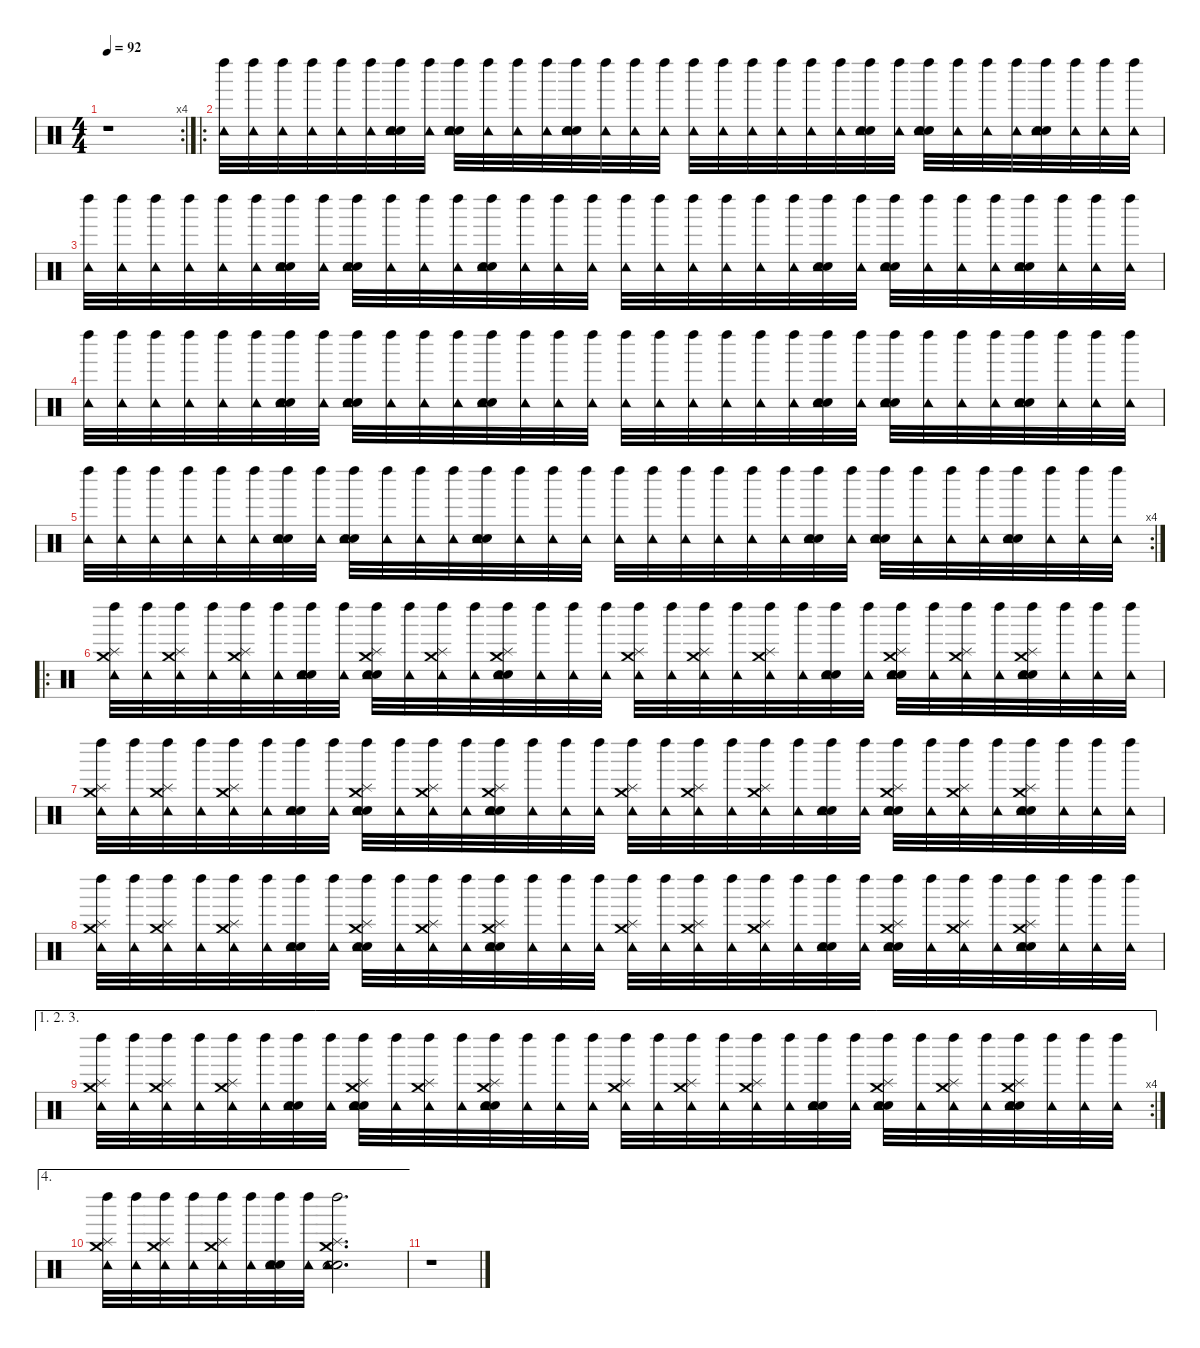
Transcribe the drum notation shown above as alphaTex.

\defaultSystemsLayout 4
\hideDynamics
\bracketExtendMode nobrackets
\singleTrackTrackNamePolicy hidden
\multiTrackTrackNamePolicy hidden
\firstSystemTrackNameMode fullname
\firstSystemTrackNameOrientation horizontal
\otherSystemsTrackNameOrientation horizontal
\track ("Percussions" "drm.") {defaultSystemsLayout 4 instrument percussion}
\staff {score}
\articulation defaults
\rc 4
\ts (4 4)
\tempo 92
\clef neutral
\ks c
r.1{dy mp beam Down} |
\ro
("Tambourine (hit)" "Left Maraca (hit)").32{beam Down} ("Tambourine (hit)" "Left Maraca (hit)").32{beam Down} ("Tambourine (hit)" "Left Maraca (hit)").32{beam Down} ("Tambourine (hit)" "Left Maraca (hit)").32{beam Down} ("Tambourine (hit)" "Left Maraca (hit)").32{beam Down} ("Tambourine (hit)" "Left Maraca (hit)").32{beam Down} ("Snare (hit) 2" "Snare (hit) 2" "Tambourine (hit)" "Left Maraca (hit)").32{dy fff beam Down} ("Tambourine (hit)" "Left Maraca (hit)").32{dy mp beam Down} ("Snare (hit) 2" "Snare (hit) 2" "Tambourine (hit)" "Left Maraca (hit)").32{dy fff beam Down} ("Tambourine (hit)" "Left Maraca (hit)").32{dy mp beam Down} ("Tambourine (hit)" "Left Maraca (hit)").32{beam Down} ("Tambourine (hit)" "Left Maraca (hit)").32{beam Down} ("Snare (hit) 2" "Snare (hit) 2" "Tambourine (hit)" "Left Maraca (hit)").32{dy fff beam Down} ("Tambourine (hit)" "Left Maraca (hit)").32{dy mp beam Down} ("Tambourine (hit)" "Left Maraca (hit)").32{beam Down} ("Tambourine (hit)" "Left Maraca (hit)").32{beam Down} ("Tambourine (hit)" "Left Maraca (hit)").32{beam Down} ("Tambourine (hit)" "Left Maraca (hit)").32{beam Down} ("Tambourine (hit)" "Left Maraca (hit)").32{beam Down} ("Tambourine (hit)" "Left Maraca (hit)").32{beam Down} ("Tambourine (hit)" "Left Maraca (hit)").32{beam Down} ("Tambourine (hit)" "Left Maraca (hit)").32{beam Down} ("Snare (hit) 2" "Snare (hit) 2" "Tambourine (hit)" "Left Maraca (hit)").32{dy fff beam Down} ("Tambourine (hit)" "Left Maraca (hit)").32{dy mp beam Down} ("Snare (hit) 2" "Snare (hit) 2" "Tambourine (hit)" "Left Maraca (hit)").32{dy fff beam Down} ("Tambourine (hit)" "Left Maraca (hit)").32{dy mp beam Down} ("Tambourine (hit)" "Left Maraca (hit)").32{beam Down} ("Tambourine (hit)" "Left Maraca (hit)").32{beam Down} ("Snare (hit) 2" "Snare (hit) 2" "Tambourine (hit)" "Left Maraca (hit)").32{dy fff beam Down} ("Tambourine (hit)" "Left Maraca (hit)").32{dy mp beam Down} ("Tambourine (hit)" "Left Maraca (hit)").32{beam Down} ("Tambourine (hit)" "Left Maraca (hit)").32{beam Down} |
("Tambourine (hit)" "Left Maraca (hit)").32{beam Down} ("Tambourine (hit)" "Left Maraca (hit)").32{beam Down} ("Tambourine (hit)" "Left Maraca (hit)").32{beam Down} ("Tambourine (hit)" "Left Maraca (hit)").32{beam Down} ("Tambourine (hit)" "Left Maraca (hit)").32{beam Down} ("Tambourine (hit)" "Left Maraca (hit)").32{beam Down} ("Snare (hit) 2" "Snare (hit) 2" "Tambourine (hit)" "Left Maraca (hit)").32{dy fff beam Down} ("Tambourine (hit)" "Left Maraca (hit)").32{dy mp beam Down} ("Snare (hit) 2" "Snare (hit) 2" "Tambourine (hit)" "Left Maraca (hit)").32{dy fff beam Down} ("Tambourine (hit)" "Left Maraca (hit)").32{dy mp beam Down} ("Tambourine (hit)" "Left Maraca (hit)").32{beam Down} ("Tambourine (hit)" "Left Maraca (hit)").32{beam Down} ("Snare (hit) 2" "Snare (hit) 2" "Tambourine (hit)" "Left Maraca (hit)").32{dy fff beam Down} ("Tambourine (hit)" "Left Maraca (hit)").32{dy mp beam Down} ("Tambourine (hit)" "Left Maraca (hit)").32{beam Down} ("Tambourine (hit)" "Left Maraca (hit)").32{beam Down} ("Tambourine (hit)" "Left Maraca (hit)").32{beam Down} ("Tambourine (hit)" "Left Maraca (hit)").32{beam Down} ("Tambourine (hit)" "Left Maraca (hit)").32{beam Down} ("Tambourine (hit)" "Left Maraca (hit)").32{beam Down} ("Tambourine (hit)" "Left Maraca (hit)").32{beam Down} ("Tambourine (hit)" "Left Maraca (hit)").32{beam Down} ("Snare (hit) 2" "Snare (hit) 2" "Tambourine (hit)" "Left Maraca (hit)").32{dy fff beam Down} ("Tambourine (hit)" "Left Maraca (hit)").32{dy mp beam Down} ("Snare (hit) 2" "Snare (hit) 2" "Tambourine (hit)" "Left Maraca (hit)").32{dy fff beam Down} ("Tambourine (hit)" "Left Maraca (hit)").32{dy mp beam Down} ("Tambourine (hit)" "Left Maraca (hit)").32{beam Down} ("Tambourine (hit)" "Left Maraca (hit)").32{beam Down} ("Snare (hit) 2" "Snare (hit) 2" "Tambourine (hit)" "Left Maraca (hit)").32{dy fff beam Down} ("Tambourine (hit)" "Left Maraca (hit)").32{dy mp beam Down} ("Tambourine (hit)" "Left Maraca (hit)").32{beam Down} ("Tambourine (hit)" "Left Maraca (hit)").32{beam Down} |
("Tambourine (hit)" "Left Maraca (hit)").32{beam Down} ("Tambourine (hit)" "Left Maraca (hit)").32{beam Down} ("Tambourine (hit)" "Left Maraca (hit)").32{beam Down} ("Tambourine (hit)" "Left Maraca (hit)").32{beam Down} ("Tambourine (hit)" "Left Maraca (hit)").32{beam Down} ("Tambourine (hit)" "Left Maraca (hit)").32{beam Down} ("Snare (hit) 2" "Snare (hit) 2" "Tambourine (hit)" "Left Maraca (hit)").32{dy fff beam Down} ("Tambourine (hit)" "Left Maraca (hit)").32{dy mp beam Down} ("Snare (hit) 2" "Snare (hit) 2" "Tambourine (hit)" "Left Maraca (hit)").32{dy fff beam Down} ("Tambourine (hit)" "Left Maraca (hit)").32{dy mp beam Down} ("Tambourine (hit)" "Left Maraca (hit)").32{beam Down} ("Tambourine (hit)" "Left Maraca (hit)").32{beam Down} ("Snare (hit) 2" "Snare (hit) 2" "Tambourine (hit)" "Left Maraca (hit)").32{dy fff beam Down} ("Tambourine (hit)" "Left Maraca (hit)").32{dy mp beam Down} ("Tambourine (hit)" "Left Maraca (hit)").32{beam Down} ("Tambourine (hit)" "Left Maraca (hit)").32{beam Down} ("Tambourine (hit)" "Left Maraca (hit)").32{beam Down} ("Tambourine (hit)" "Left Maraca (hit)").32{beam Down} ("Tambourine (hit)" "Left Maraca (hit)").32{beam Down} ("Tambourine (hit)" "Left Maraca (hit)").32{beam Down} ("Tambourine (hit)" "Left Maraca (hit)").32{beam Down} ("Tambourine (hit)" "Left Maraca (hit)").32{beam Down} ("Snare (hit) 2" "Snare (hit) 2" "Tambourine (hit)" "Left Maraca (hit)").32{dy fff beam Down} ("Tambourine (hit)" "Left Maraca (hit)").32{dy mp beam Down} ("Snare (hit) 2" "Snare (hit) 2" "Tambourine (hit)" "Left Maraca (hit)").32{dy fff beam Down} ("Tambourine (hit)" "Left Maraca (hit)").32{dy mp beam Down} ("Tambourine (hit)" "Left Maraca (hit)").32{beam Down} ("Tambourine (hit)" "Left Maraca (hit)").32{beam Down} ("Snare (hit) 2" "Snare (hit) 2" "Tambourine (hit)" "Left Maraca (hit)").32{dy fff beam Down} ("Tambourine (hit)" "Left Maraca (hit)").32{dy mp beam Down} ("Tambourine (hit)" "Left Maraca (hit)").32{beam Down} ("Tambourine (hit)" "Left Maraca (hit)").32{beam Down} |
\rc 4
("Tambourine (hit)" "Left Maraca (hit)").32{beam Down} ("Tambourine (hit)" "Left Maraca (hit)").32{beam Down} ("Tambourine (hit)" "Left Maraca (hit)").32{beam Down} ("Tambourine (hit)" "Left Maraca (hit)").32{beam Down} ("Tambourine (hit)" "Left Maraca (hit)").32{beam Down} ("Tambourine (hit)" "Left Maraca (hit)").32{beam Down} ("Snare (hit) 2" "Snare (hit) 2" "Tambourine (hit)" "Left Maraca (hit)").32{dy fff beam Down} ("Tambourine (hit)" "Left Maraca (hit)").32{dy mp beam Down} ("Snare (hit) 2" "Snare (hit) 2" "Tambourine (hit)" "Left Maraca (hit)").32{dy fff beam Down} ("Tambourine (hit)" "Left Maraca (hit)").32{dy mp beam Down} ("Tambourine (hit)" "Left Maraca (hit)").32{beam Down} ("Tambourine (hit)" "Left Maraca (hit)").32{beam Down} ("Snare (hit) 2" "Snare (hit) 2" "Tambourine (hit)" "Left Maraca (hit)").32{dy fff beam Down} ("Tambourine (hit)" "Left Maraca (hit)").32{dy mp beam Down} ("Tambourine (hit)" "Left Maraca (hit)").32{beam Down} ("Tambourine (hit)" "Left Maraca (hit)").32{beam Down} ("Tambourine (hit)" "Left Maraca (hit)").32{beam Down} ("Tambourine (hit)" "Left Maraca (hit)").32{beam Down} ("Tambourine (hit)" "Left Maraca (hit)").32{beam Down} ("Tambourine (hit)" "Left Maraca (hit)").32{beam Down} ("Tambourine (hit)" "Left Maraca (hit)").32{beam Down} ("Tambourine (hit)" "Left Maraca (hit)").32{beam Down} ("Snare (hit) 2" "Snare (hit) 2" "Tambourine (hit)" "Left Maraca (hit)").32{dy fff beam Down} ("Tambourine (hit)" "Left Maraca (hit)").32{dy mp beam Down} ("Snare (hit) 2" "Snare (hit) 2" "Tambourine (hit)" "Left Maraca (hit)").32{dy fff beam Down} ("Tambourine (hit)" "Left Maraca (hit)").32{dy mp beam Down} ("Tambourine (hit)" "Left Maraca (hit)").32{beam Down} ("Tambourine (hit)" "Left Maraca (hit)").32{beam Down} ("Snare (hit) 2" "Snare (hit) 2" "Tambourine (hit)" "Left Maraca (hit)").32{dy fff beam Down} ("Tambourine (hit)" "Left Maraca (hit)").32{dy mp beam Down} ("Tambourine (hit)" "Left Maraca (hit)").32{beam Down} ("Tambourine (hit)" "Left Maraca (hit)").32{beam Down} |
\ro
("Splash (hit)" "Crash medium (hit)" "Tambourine (hit)" "Left Maraca (hit)").32{dy fff beam Down} ("Tambourine (hit)" "Left Maraca (hit)").32{beam Down} ("Splash (hit)" "Crash medium (hit)" "Tambourine (hit)" "Left Maraca (hit)").32{beam Down} ("Tambourine (hit)" "Left Maraca (hit)").32{beam Down} ("Splash (hit)" "Crash medium (hit)" "Tambourine (hit)" "Left Maraca (hit)").32{beam Down} ("Tambourine (hit)" "Left Maraca (hit)").32{beam Down} ("Snare (hit) 2" "Snare (hit) 2" "Tambourine (hit)" "Left Maraca (hit)").32{beam Down} ("Tambourine (hit)" "Left Maraca (hit)").32{beam Down} ("Snare (hit) 2" "Snare (hit) 2" "Splash (hit)" "Crash medium (hit)" "Tambourine (hit)" "Left Maraca (hit)").32{beam Down} ("Tambourine (hit)" "Left Maraca (hit)").32{beam Down} ("Splash (hit)" "Crash medium (hit)" "Tambourine (hit)" "Left Maraca (hit)").32{beam Down} ("Tambourine (hit)" "Left Maraca (hit)").32{beam Down} ("Snare (hit) 2" "Snare (hit) 2" "Splash (hit)" "Crash medium (hit)" "Tambourine (hit)" "Left Maraca (hit)").32{beam Down} ("Tambourine (hit)" "Left Maraca (hit)").32{beam Down} ("Tambourine (hit)" "Left Maraca (hit)").32{beam Down} ("Tambourine (hit)" "Left Maraca (hit)").32{beam Down} ("Splash (hit)" "Crash medium (hit)" "Tambourine (hit)" "Left Maraca (hit)").32{beam Down} ("Tambourine (hit)" "Left Maraca (hit)").32{beam Down} ("Splash (hit)" "Crash medium (hit)" "Tambourine (hit)" "Left Maraca (hit)").32{beam Down} ("Tambourine (hit)" "Left Maraca (hit)").32{beam Down} ("Splash (hit)" "Crash medium (hit)" "Tambourine (hit)" "Left Maraca (hit)").32{beam Down} ("Tambourine (hit)" "Left Maraca (hit)").32{beam Down} ("Snare (hit) 2" "Snare (hit) 2" "Tambourine (hit)" "Left Maraca (hit)").32{beam Down} ("Tambourine (hit)" "Left Maraca (hit)").32{beam Down} ("Snare (hit) 2" "Snare (hit) 2" "Splash (hit)" "Crash medium (hit)" "Tambourine (hit)" "Left Maraca (hit)").32{beam Down} ("Tambourine (hit)" "Left Maraca (hit)").32{beam Down} ("Splash (hit)" "Crash medium (hit)" "Tambourine (hit)" "Left Maraca (hit)").32{beam Down} ("Tambourine (hit)" "Left Maraca (hit)").32{beam Down} ("Snare (hit) 2" "Snare (hit) 2" "Splash (hit)" "Crash medium (hit)" "Tambourine (hit)" "Left Maraca (hit)").32{beam Down} ("Tambourine (hit)" "Left Maraca (hit)").32{beam Down} ("Tambourine (hit)" "Left Maraca (hit)").32{beam Down} ("Tambourine (hit)" "Left Maraca (hit)").32{beam Down} |
("Splash (hit)" "Crash medium (hit)" "Tambourine (hit)" "Left Maraca (hit)").32{beam Down} ("Tambourine (hit)" "Left Maraca (hit)").32{beam Down} ("Splash (hit)" "Crash medium (hit)" "Tambourine (hit)" "Left Maraca (hit)").32{beam Down} ("Tambourine (hit)" "Left Maraca (hit)").32{beam Down} ("Splash (hit)" "Crash medium (hit)" "Tambourine (hit)" "Left Maraca (hit)").32{beam Down} ("Tambourine (hit)" "Left Maraca (hit)").32{beam Down} ("Snare (hit) 2" "Snare (hit) 2" "Tambourine (hit)" "Left Maraca (hit)").32{beam Down} ("Tambourine (hit)" "Left Maraca (hit)").32{beam Down} ("Snare (hit) 2" "Snare (hit) 2" "Splash (hit)" "Crash medium (hit)" "Tambourine (hit)" "Left Maraca (hit)").32{beam Down} ("Tambourine (hit)" "Left Maraca (hit)").32{beam Down} ("Splash (hit)" "Crash medium (hit)" "Tambourine (hit)" "Left Maraca (hit)").32{beam Down} ("Tambourine (hit)" "Left Maraca (hit)").32{beam Down} ("Snare (hit) 2" "Snare (hit) 2" "Splash (hit)" "Crash medium (hit)" "Tambourine (hit)" "Left Maraca (hit)").32{beam Down} ("Tambourine (hit)" "Left Maraca (hit)").32{beam Down} ("Tambourine (hit)" "Left Maraca (hit)").32{beam Down} ("Tambourine (hit)" "Left Maraca (hit)").32{beam Down} ("Splash (hit)" "Crash medium (hit)" "Tambourine (hit)" "Left Maraca (hit)").32{beam Down} ("Tambourine (hit)" "Left Maraca (hit)").32{beam Down} ("Splash (hit)" "Crash medium (hit)" "Tambourine (hit)" "Left Maraca (hit)").32{beam Down} ("Tambourine (hit)" "Left Maraca (hit)").32{beam Down} ("Splash (hit)" "Crash medium (hit)" "Tambourine (hit)" "Left Maraca (hit)").32{beam Down} ("Tambourine (hit)" "Left Maraca (hit)").32{beam Down} ("Snare (hit) 2" "Snare (hit) 2" "Tambourine (hit)" "Left Maraca (hit)").32{beam Down} ("Tambourine (hit)" "Left Maraca (hit)").32{beam Down} ("Snare (hit) 2" "Snare (hit) 2" "Splash (hit)" "Crash medium (hit)" "Tambourine (hit)" "Left Maraca (hit)").32{beam Down} ("Tambourine (hit)" "Left Maraca (hit)").32{beam Down} ("Splash (hit)" "Crash medium (hit)" "Tambourine (hit)" "Left Maraca (hit)").32{beam Down} ("Tambourine (hit)" "Left Maraca (hit)").32{beam Down} ("Snare (hit) 2" "Snare (hit) 2" "Splash (hit)" "Crash medium (hit)" "Tambourine (hit)" "Left Maraca (hit)").32{beam Down} ("Tambourine (hit)" "Left Maraca (hit)").32{beam Down} ("Tambourine (hit)" "Left Maraca (hit)").32{beam Down} ("Tambourine (hit)" "Left Maraca (hit)").32{beam Down} |
("Splash (hit)" "Crash medium (hit)" "Tambourine (hit)" "Left Maraca (hit)").32{beam Down} ("Tambourine (hit)" "Left Maraca (hit)").32{beam Down} ("Splash (hit)" "Crash medium (hit)" "Tambourine (hit)" "Left Maraca (hit)").32{beam Down} ("Tambourine (hit)" "Left Maraca (hit)").32{beam Down} ("Splash (hit)" "Crash medium (hit)" "Tambourine (hit)" "Left Maraca (hit)").32{beam Down} ("Tambourine (hit)" "Left Maraca (hit)").32{beam Down} ("Snare (hit) 2" "Snare (hit) 2" "Tambourine (hit)" "Left Maraca (hit)").32{beam Down} ("Tambourine (hit)" "Left Maraca (hit)").32{beam Down} ("Snare (hit) 2" "Snare (hit) 2" "Splash (hit)" "Crash medium (hit)" "Tambourine (hit)" "Left Maraca (hit)").32{beam Down} ("Tambourine (hit)" "Left Maraca (hit)").32{beam Down} ("Splash (hit)" "Crash medium (hit)" "Tambourine (hit)" "Left Maraca (hit)").32{beam Down} ("Tambourine (hit)" "Left Maraca (hit)").32{beam Down} ("Snare (hit) 2" "Snare (hit) 2" "Splash (hit)" "Crash medium (hit)" "Tambourine (hit)" "Left Maraca (hit)").32{beam Down} ("Tambourine (hit)" "Left Maraca (hit)").32{beam Down} ("Tambourine (hit)" "Left Maraca (hit)").32{beam Down} ("Tambourine (hit)" "Left Maraca (hit)").32{beam Down} ("Splash (hit)" "Crash medium (hit)" "Tambourine (hit)" "Left Maraca (hit)").32{beam Down} ("Tambourine (hit)" "Left Maraca (hit)").32{beam Down} ("Splash (hit)" "Crash medium (hit)" "Tambourine (hit)" "Left Maraca (hit)").32{beam Down} ("Tambourine (hit)" "Left Maraca (hit)").32{beam Down} ("Splash (hit)" "Crash medium (hit)" "Tambourine (hit)" "Left Maraca (hit)").32{beam Down} ("Tambourine (hit)" "Left Maraca (hit)").32{beam Down} ("Snare (hit) 2" "Snare (hit) 2" "Tambourine (hit)" "Left Maraca (hit)").32{beam Down} ("Tambourine (hit)" "Left Maraca (hit)").32{beam Down} ("Snare (hit) 2" "Snare (hit) 2" "Splash (hit)" "Crash medium (hit)" "Tambourine (hit)" "Left Maraca (hit)").32{beam Down} ("Tambourine (hit)" "Left Maraca (hit)").32{beam Down} ("Splash (hit)" "Crash medium (hit)" "Tambourine (hit)" "Left Maraca (hit)").32{beam Down} ("Tambourine (hit)" "Left Maraca (hit)").32{beam Down} ("Snare (hit) 2" "Snare (hit) 2" "Splash (hit)" "Crash medium (hit)" "Tambourine (hit)" "Left Maraca (hit)").32{beam Down} ("Tambourine (hit)" "Left Maraca (hit)").32{beam Down} ("Tambourine (hit)" "Left Maraca (hit)").32{beam Down} ("Tambourine (hit)" "Left Maraca (hit)").32{beam Down} |
\ae (1 2 3)
\rc 4
("Splash (hit)" "Crash medium (hit)" "Tambourine (hit)" "Left Maraca (hit)").32{beam Down} ("Tambourine (hit)" "Left Maraca (hit)").32{beam Down} ("Splash (hit)" "Crash medium (hit)" "Tambourine (hit)" "Left Maraca (hit)").32{beam Down} ("Tambourine (hit)" "Left Maraca (hit)").32{beam Down} ("Splash (hit)" "Crash medium (hit)" "Tambourine (hit)" "Left Maraca (hit)").32{beam Down} ("Tambourine (hit)" "Left Maraca (hit)").32{beam Down} ("Snare (hit) 2" "Snare (hit) 2" "Tambourine (hit)" "Left Maraca (hit)").32{beam Down} ("Tambourine (hit)" "Left Maraca (hit)").32{beam Down} ("Snare (hit) 2" "Snare (hit) 2" "Splash (hit)" "Crash medium (hit)" "Tambourine (hit)" "Left Maraca (hit)").32{beam Down} ("Tambourine (hit)" "Left Maraca (hit)").32{beam Down} ("Splash (hit)" "Crash medium (hit)" "Tambourine (hit)" "Left Maraca (hit)").32{beam Down} ("Tambourine (hit)" "Left Maraca (hit)").32{beam Down} ("Snare (hit) 2" "Snare (hit) 2" "Splash (hit)" "Crash medium (hit)" "Tambourine (hit)" "Left Maraca (hit)").32{beam Down} ("Tambourine (hit)" "Left Maraca (hit)").32{beam Down} ("Tambourine (hit)" "Left Maraca (hit)").32{beam Down} ("Tambourine (hit)" "Left Maraca (hit)").32{beam Down} ("Splash (hit)" "Crash medium (hit)" "Tambourine (hit)" "Left Maraca (hit)").32{beam Down} ("Tambourine (hit)" "Left Maraca (hit)").32{beam Down} ("Splash (hit)" "Crash medium (hit)" "Tambourine (hit)" "Left Maraca (hit)").32{beam Down} ("Tambourine (hit)" "Left Maraca (hit)").32{beam Down} ("Splash (hit)" "Crash medium (hit)" "Tambourine (hit)" "Left Maraca (hit)").32{beam Down} ("Tambourine (hit)" "Left Maraca (hit)").32{beam Down} ("Snare (hit) 2" "Snare (hit) 2" "Tambourine (hit)" "Left Maraca (hit)").32{beam Down} ("Tambourine (hit)" "Left Maraca (hit)").32{beam Down} ("Snare (hit) 2" "Snare (hit) 2" "Splash (hit)" "Crash medium (hit)" "Tambourine (hit)" "Left Maraca (hit)").32{beam Down} ("Tambourine (hit)" "Left Maraca (hit)").32{beam Down} ("Splash (hit)" "Crash medium (hit)" "Tambourine (hit)" "Left Maraca (hit)").32{beam Down} ("Tambourine (hit)" "Left Maraca (hit)").32{beam Down} ("Snare (hit) 2" "Snare (hit) 2" "Splash (hit)" "Crash medium (hit)" "Tambourine (hit)" "Left Maraca (hit)").32{beam Down} ("Tambourine (hit)" "Left Maraca (hit)").32{beam Down} ("Tambourine (hit)" "Left Maraca (hit)").32{beam Down} ("Tambourine (hit)" "Left Maraca (hit)").32{beam Down} |
\ae 4
("Splash (hit)" "Crash medium (hit)" "Tambourine (hit)" "Left Maraca (hit)").32{beam Down} ("Tambourine (hit)" "Left Maraca (hit)").32{beam Down} ("Splash (hit)" "Crash medium (hit)" "Tambourine (hit)" "Left Maraca (hit)").32{beam Down} ("Tambourine (hit)" "Left Maraca (hit)").32{beam Down} ("Splash (hit)" "Crash medium (hit)" "Tambourine (hit)" "Left Maraca (hit)").32{beam Down} ("Tambourine (hit)" "Left Maraca (hit)").32{beam Down} ("Snare (hit) 2" "Snare (hit) 2" "Tambourine (hit)" "Left Maraca (hit)").32{beam Down} ("Tambourine (hit)" "Left Maraca (hit)").32{beam Down} ("Snare (hit) 2" "Snare (hit) 2" "Splash (hit)" "Crash medium (hit)" "Tambourine (hit)" "Left Maraca (hit)").2{d beam Down} |
r.1{beam Down}
